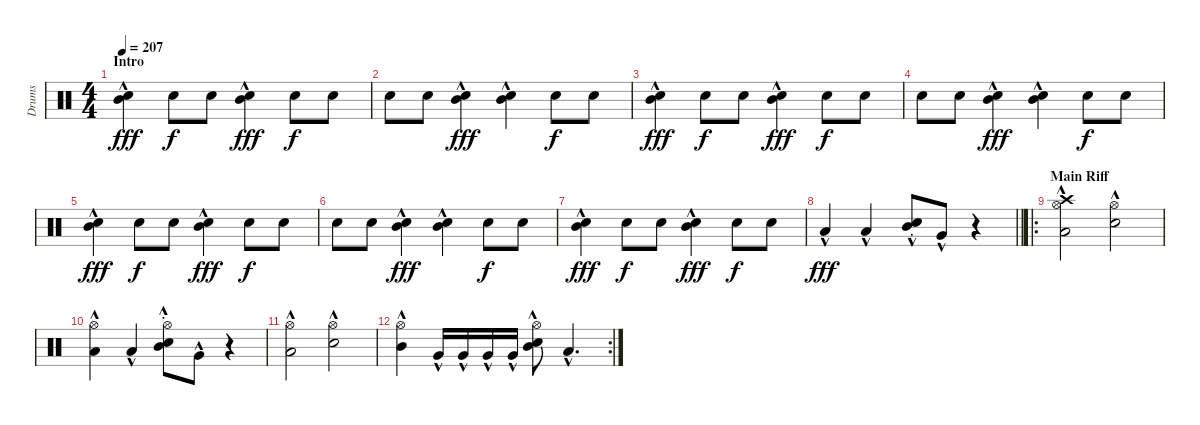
\track ("Drums" "Drums") {instrument percussion}
\staff {score}
\articulation defaults
\ts (4 4)
\section ("" "Intro")
\tempo 207
\clef neutral
\ks c
("Snare (hit) 2"{hac} "Mid Tom (hit)"{hac}).4{dy fff} "Snare (hit) 2".8{dy f} "Snare (hit) 2".8 ("Snare (hit) 2"{hac} "Mid Tom (hit)"{hac}).4{dy fff} "Snare (hit) 2".8{dy f} "Snare (hit) 2".8 |
"Snare (hit) 2".8 "Snare (hit) 2".8 ("Snare (hit) 2"{hac} "Mid Tom (hit)"{hac}).4{dy fff} ("Snare (hit) 2"{hac} "Mid Tom (hit)"{hac}).4 "Snare (hit) 2".8{dy f} "Snare (hit) 2".8 |
("Snare (hit) 2"{hac} "Mid Tom (hit)"{hac}).4{dy fff} "Snare (hit) 2".8{dy f} "Snare (hit) 2".8 ("Snare (hit) 2"{hac} "Mid Tom (hit)"{hac}).4{dy fff} "Snare (hit) 2".8{dy f} "Snare (hit) 2".8 |
"Snare (hit) 2".8 "Snare (hit) 2".8 ("Snare (hit) 2"{hac} "Mid Tom (hit)"{hac}).4{dy fff} ("Snare (hit) 2"{hac} "Mid Tom (hit)"{hac}).4 "Snare (hit) 2".8{dy f} "Snare (hit) 2".8 |
("Snare (hit) 2"{hac} "Mid Tom (hit)"{hac}).4{dy fff} "Snare (hit) 2".8{dy f} "Snare (hit) 2".8 ("Snare (hit) 2"{hac} "Mid Tom (hit)"{hac}).4{dy fff} "Snare (hit) 2".8{dy f} "Snare (hit) 2".8 |
"Snare (hit) 2".8 "Snare (hit) 2".8 ("Snare (hit) 2"{hac} "Mid Tom (hit)"{hac}).4{dy fff} ("Snare (hit) 2"{hac} "Mid Tom (hit)"{hac}).4 "Snare (hit) 2".8{dy f} "Snare (hit) 2".8 |
("Snare (hit) 2"{hac} "Mid Tom (hit)"{hac}).4{dy fff} "Snare (hit) 2".8{dy f} "Snare (hit) 2".8 ("Snare (hit) 2"{hac} "Mid Tom (hit)"{hac}).4{dy fff} "Snare (hit) 2".8{dy f} "Snare (hit) 2".8 |
\barLineRight lightlight "Low Tom (hit)"{hac}.4{dy fff} "Low Tom (hit)"{hac}.4
("Snare (hit) 2"{hac st} "Mid Tom (hit)"{hac}).8 "Very Low Tom (hit)"{hac}.8 r.4 |
\ro
\section ("" "Main Riff")
("Crash high (hit)"{hac} "Low Tom (hit)"{hac} "Hi-Hat (open)"{hac}).2 ("Snare (hit) 2"{hac} "Hi-Hat (open)"{hac}).2 |
("Low Tom (hit)"{hac} "Hi-Hat (open)"{hac}).4 "Low Tom (hit)"{hac}.4 ("Snare (hit) 2"{hac st} "Mid Tom (hit)"{hac} "Hi-Hat (open)"{hac}).8 "Very Low Tom (hit)"{hac}.8 r.4 |
("Low Tom (hit)"{hac} "Hi-Hat (open)"{hac}).2 ("Snare (hit) 2"{hac} "Hi-Hat (open)"{hac}).2 |
\rc 2
("Mid Tom (hit)"{hac} "Hi-Hat (open)"{hac}).4 "Very Low Tom (hit)"{hac}.16 "Very Low Tom (hit)"{hac}.16 "Very Low Tom (hit)"{hac}.16 "Very Low Tom (hit)"{hac}.16 ("Snare (hit) 2"{hac} "Mid Tom (hit)"{hac} "Hi-Hat (open)"{hac}).8 "Low Tom (hit)"{hac}.4{d}
